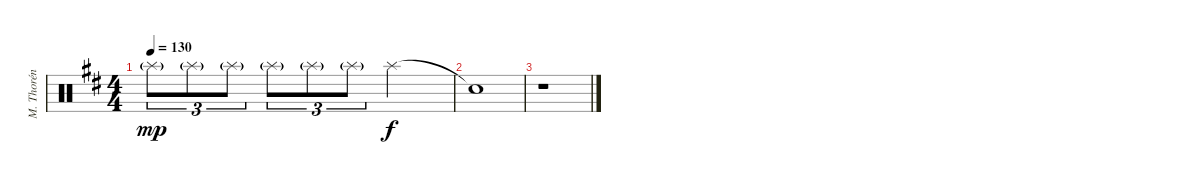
\track ("M. Thorén (Drums)" "M. Thorén ") {instrument percussion}
\staff {score}
\articulation defaults
\ts (4 4)
\tempo 130
\clef neutral
\ks bminor "Splash (hit)"{g}.8{tu (3 2) dy mp} "Splash (hit)"{g}.8{tu (3 2)} "Splash (hit)"{g}.8{tu (3 2)} "Splash (hit)"{g}.8{tu (3 2)} "Splash (hit)"{g}.8{tu (3 2)} "Splash (hit)"{g}.8{tu (3 2)} "Splash (hit)".2{dy f}
|
"Snare (hit)"{t}.1 |
r.1
